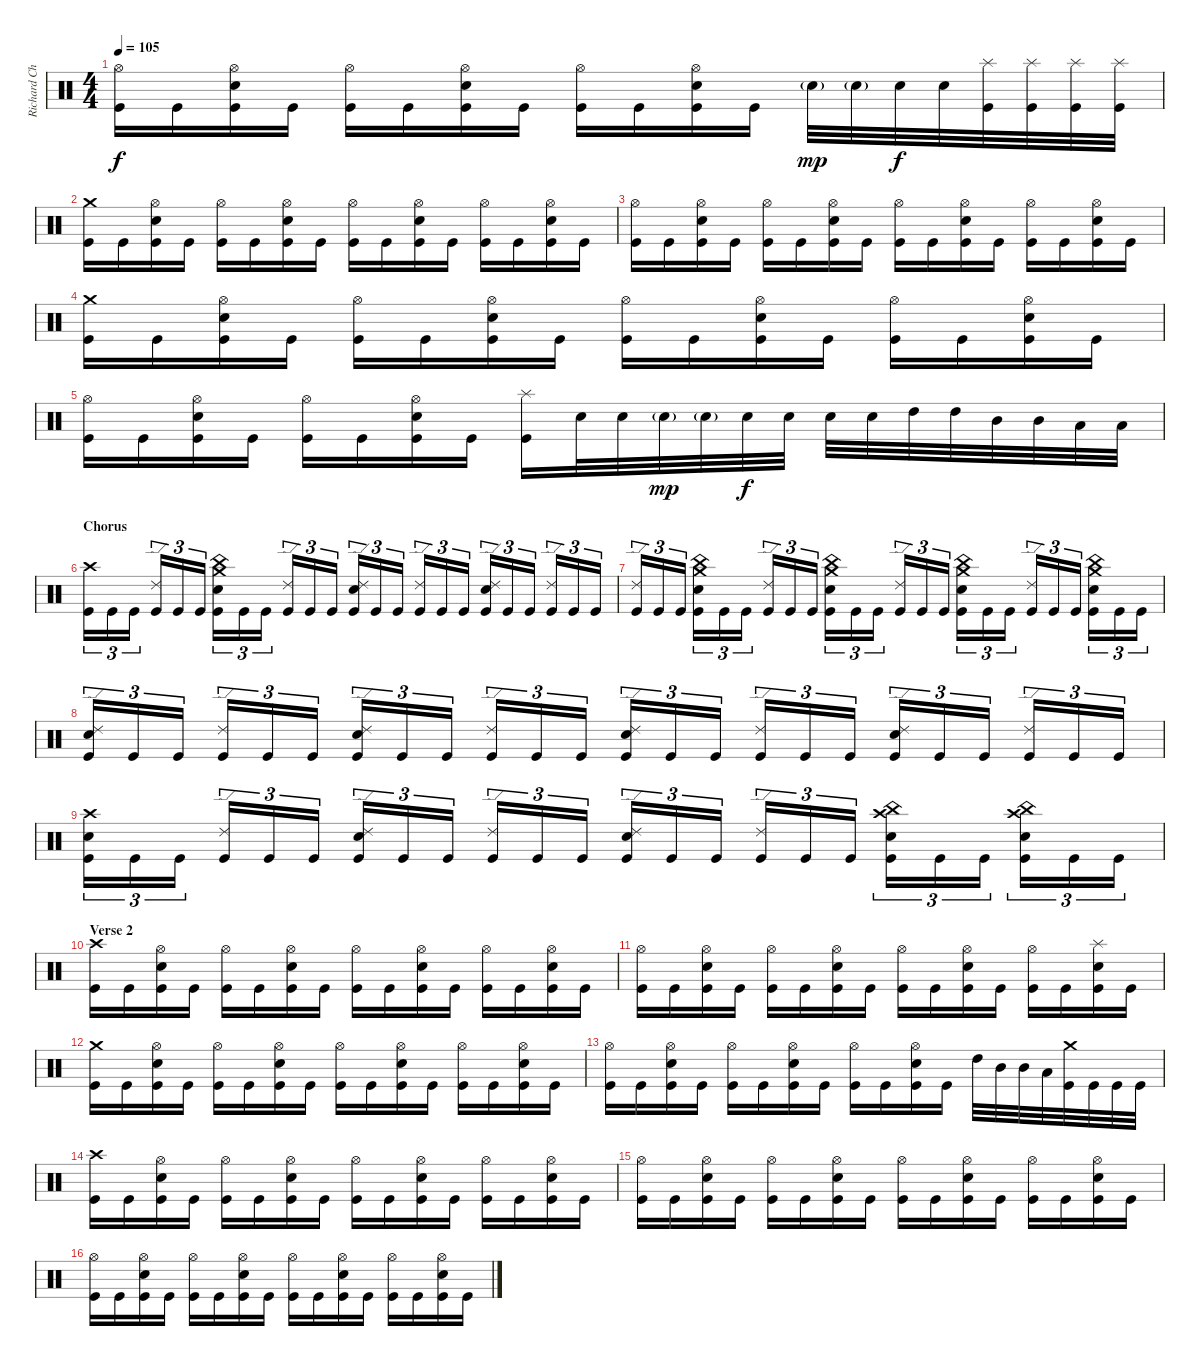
\track ("Richard Christy" "Richard Ch") {instrument percussion}
\staff {score}
\articulation defaults
\ts (4 4)
\tempo 105
\clef neutral
\ks c
("Hi-Hat (open)" "Kick (hit)").16{dy f} "Kick (hit)".16 ("Hi-Hat (open)" "Electric Snare (hit)" "Kick (hit)").16 "Kick (hit)".16 ("Hi-Hat (open)" "Kick (hit)").16 "Kick (hit)".16 ("Hi-Hat (open)" "Electric Snare (hit)" "Kick (hit)").16 "Kick (hit)".16 ("Hi-Hat (open)" "Kick (hit)").16 "Kick (hit)".16 ("Hi-Hat (open)" "Electric Snare (hit)" "Kick (hit)").16 "Kick (hit)".16 "Electric Snare (hit)"{g}.32{dy mp} "Electric Snare (hit)"{g}.32 "Electric Snare (hit)".32{dy f} "Electric Snare (hit)".32 ("Splash (hit)" "Kick (hit)").32 ("Splash (hit)" "Kick (hit)").32 ("Splash (hit)" "Kick (hit)").32 ("Splash (hit)" "Kick (hit)").32 |
("Crash medium (hit)" "Kick (hit)").16 "Kick (hit)".16 ("Hi-Hat (open)" "Electric Snare (hit)" "Kick (hit)").16 "Kick (hit)".16 ("Hi-Hat (open)" "Kick (hit)").16 "Kick (hit)".16 ("Hi-Hat (open)" "Electric Snare (hit)" "Kick (hit)").16 "Kick (hit)".16 ("Hi-Hat (open)" "Kick (hit)").16 "Kick (hit)".16 ("Hi-Hat (open)" "Electric Snare (hit)" "Kick (hit)").16 "Kick (hit)".16 ("Hi-Hat (open)" "Kick (hit)").16 "Kick (hit)".16 ("Hi-Hat (open)" "Electric Snare (hit)" "Kick (hit)").16 "Kick (hit)".16 |
("Hi-Hat (open)" "Kick (hit)").16 "Kick (hit)".16 ("Hi-Hat (open)" "Electric Snare (hit)" "Kick (hit)").16 "Kick (hit)".16 ("Hi-Hat (open)" "Kick (hit)").16 "Kick (hit)".16 ("Hi-Hat (open)" "Electric Snare (hit)" "Kick (hit)").16 "Kick (hit)".16 ("Hi-Hat (open)" "Kick (hit)").16 "Kick (hit)".16 ("Hi-Hat (open)" "Electric Snare (hit)" "Kick (hit)").16 "Kick (hit)".16 ("Hi-Hat (open)" "Kick (hit)").16 "Kick (hit)".16 ("Hi-Hat (open)" "Electric Snare (hit)" "Kick (hit)").16 "Kick (hit)".16 |
("Crash medium (hit)" "Kick (hit)").16 "Kick (hit)".16 ("Hi-Hat (open)" "Electric Snare (hit)" "Kick (hit)").16 "Kick (hit)".16 ("Hi-Hat (open)" "Kick (hit)").16 "Kick (hit)".16 ("Hi-Hat (open)" "Electric Snare (hit)" "Kick (hit)").16 "Kick (hit)".16 ("Hi-Hat (open)" "Kick (hit)").16 "Kick (hit)".16 ("Hi-Hat (open)" "Electric Snare (hit)" "Kick (hit)").16 "Kick (hit)".16 ("Hi-Hat (open)" "Kick (hit)").16 "Kick (hit)".16 ("Hi-Hat (open)" "Electric Snare (hit)" "Kick (hit)").16 "Kick (hit)".16 |
("Hi-Hat (open)" "Kick (hit)").16 "Kick (hit)".16 ("Hi-Hat (open)" "Electric Snare (hit)" "Kick (hit)").16 "Kick (hit)".16 ("Hi-Hat (open)" "Kick (hit)").16 "Kick (hit)".16 ("Hi-Hat (open)" "Electric Snare (hit)" "Kick (hit)").16 "Kick (hit)".16 ("Splash (hit)" "Kick (hit)").16 "Electric Snare (hit)".32 "Electric Snare (hit)".32 "Electric Snare (hit)"{g}.32{dy mp} "Electric Snare (hit)"{g}.32 "Electric Snare (hit)".32{dy f} "Electric Snare (hit)".32 "Electric Snare (hit)".32 "Electric Snare (hit)".32 "High Tom (hit)".32 "High Tom (hit)".32 "Mid Tom (hit)".32 "Mid Tom (hit)".32 "Low Tom (hit)".32 "Low Tom (hit)".32 |
\section ("" "Chorus")
("Crash high (hit)" "Kick (hit)").16{tu (3 2)} "Kick (hit)".16{tu (3 2)} "Kick (hit)".16{tu (3 2)} ("Ride (edge) 2" "Kick (hit)").16{tu (3 2)} "Kick (hit)".16{tu (3 2)} "Kick (hit)".16{tu (3 2)} ("Crash medium (hit)" "China (hit)" "Electric Snare (hit)" "Kick (hit)").16{tu (3 2)} "Kick (hit)".16{tu (3 2)} "Kick (hit)".16{tu (3 2)} ("Ride (edge) 2" "Kick (hit)").16{tu (3 2)} "Kick (hit)".16{tu (3 2)} "Kick (hit)".16{tu (3 2)} ("Ride (edge) 2" "Electric Snare (hit)" "Kick (hit)").16{tu (3 2)} "Kick (hit)".16{tu (3 2)} "Kick (hit)".16{tu (3 2)} ("Ride (edge) 2" "Kick (hit)").16{tu (3 2)} "Kick (hit)".16{tu (3 2)} "Kick (hit)".16{tu (3 2)} ("Ride (edge) 2" "Electric Snare (hit)" "Kick (hit)").16{tu (3 2)} "Kick (hit)".16{tu (3 2)} "Kick (hit)".16{tu (3 2)} ("Ride (edge) 2" "Kick (hit)").16{tu (3 2)} "Kick (hit)".16{tu (3 2)} "Kick (hit)".16{tu (3 2)} |
("Ride (edge) 2" "Kick (hit)").16{tu (3 2)} "Kick (hit)".16{tu (3 2)} "Kick (hit)".16{tu (3 2)} ("Crash medium (hit)" "China (hit)" "Electric Snare (hit)" "Kick (hit)").16{tu (3 2)} "Kick (hit)".16{tu (3 2)} "Kick (hit)".16{tu (3 2)} ("Ride (edge) 2" "Kick (hit)").16{tu (3 2)} "Kick (hit)".16{tu (3 2)} "Kick (hit)".16{tu (3 2)} ("Crash medium (hit)" "China (hit)" "Electric Snare (hit)" "Kick (hit)").16{tu (3 2)} "Kick (hit)".16{tu (3 2)} "Kick (hit)".16{tu (3 2)} ("Ride (edge) 2" "Kick (hit)").16{tu (3 2)} "Kick (hit)".16{tu (3 2)} "Kick (hit)".16{tu (3 2)} ("Crash medium (hit)" "China (hit)" "Electric Snare (hit)" "Kick (hit)").16{tu (3 2)} "Kick (hit)".16{tu (3 2)} "Kick (hit)".16{tu (3 2)} ("Ride (edge) 2" "Kick (hit)").16{tu (3 2)} "Kick (hit)".16{tu (3 2)} "Kick (hit)".16{tu (3 2)} ("Crash medium (hit)" "China (hit)" "Electric Snare (hit)" "Kick (hit)").16{tu (3 2)} "Kick (hit)".16{tu (3 2)} "Kick (hit)".16{tu (3 2)} |
("Ride (edge) 2" "Electric Snare (hit)" "Kick (hit)").16{tu (3 2)} "Kick (hit)".16{tu (3 2)} "Kick (hit)".16{tu (3 2)} ("Ride (edge) 2" "Kick (hit)").16{tu (3 2)} "Kick (hit)".16{tu (3 2)} "Kick (hit)".16{tu (3 2)} ("Ride (edge) 2" "Electric Snare (hit)" "Kick (hit)").16{tu (3 2)} "Kick (hit)".16{tu (3 2)} "Kick (hit)".16{tu (3 2)} ("Ride (edge) 2" "Kick (hit)").16{tu (3 2)} "Kick (hit)".16{tu (3 2)} "Kick (hit)".16{tu (3 2)} ("Ride (edge) 2" "Electric Snare (hit)" "Kick (hit)").16{tu (3 2)} "Kick (hit)".16{tu (3 2)} "Kick (hit)".16{tu (3 2)} ("Ride (edge) 2" "Kick (hit)").16{tu (3 2)} "Kick (hit)".16{tu (3 2)} "Kick (hit)".16{tu (3 2)} ("Ride (edge) 2" "Electric Snare (hit)" "Kick (hit)").16{tu (3 2)} "Kick (hit)".16{tu (3 2)} "Kick (hit)".16{tu (3 2)} ("Ride (edge) 2" "Kick (hit)").16{tu (3 2)} "Kick (hit)".16{tu (3 2)} "Kick (hit)".16{tu (3 2)} |
("Crash high (hit)" "Electric Snare (hit)" "Kick (hit)").16{tu (3 2)} "Kick (hit)".16{tu (3 2)} "Kick (hit)".16{tu (3 2)} ("Ride (edge) 2" "Kick (hit)").16{tu (3 2)} "Kick (hit)".16{tu (3 2)} "Kick (hit)".16{tu (3 2)} ("Ride (edge) 2" "Electric Snare (hit)" "Kick (hit)").16{tu (3 2)} "Kick (hit)".16{tu (3 2)} "Kick (hit)".16{tu (3 2)} ("Ride (edge) 2" "Kick (hit)").16{tu (3 2)} "Kick (hit)".16{tu (3 2)} "Kick (hit)".16{tu (3 2)} ("Ride (edge) 2" "Electric Snare (hit)" "Kick (hit)").16{tu (3 2)} "Kick (hit)".16{tu (3 2)} "Kick (hit)".16{tu (3 2)} ("Ride (edge) 2" "Kick (hit)").16{tu (3 2)} "Kick (hit)".16{tu (3 2)} "Kick (hit)".16{tu (3 2)} ("Crash high (hit)" "China (hit)" "Electric Snare (hit)" "Kick (hit)").16{tu (3 2)} "Kick (hit)".16{tu (3 2)} "Kick (hit)".16{tu (3 2)} ("Crash high (hit)" "China (hit)" "Electric Snare (hit)" "Kick (hit)").16{tu (3 2)} "Kick (hit)".16{tu (3 2)} "Kick (hit)".16{tu (3 2)} |
\section ("" "Verse 2")
("Crash high (hit)" "Kick (hit)").16 "Kick (hit)".16 ("Hi-Hat (open)" "Electric Snare (hit)" "Kick (hit)").16 "Kick (hit)".16 ("Hi-Hat (open)" "Kick (hit)").16 "Kick (hit)".16 ("Hi-Hat (open)" "Electric Snare (hit)" "Kick (hit)").16 "Kick (hit)".16 ("Hi-Hat (open)" "Kick (hit)").16 "Kick (hit)".16 ("Hi-Hat (open)" "Electric Snare (hit)" "Kick (hit)").16 "Kick (hit)".16 ("Hi-Hat (open)" "Kick (hit)").16 "Kick (hit)".16 ("Hi-Hat (open)" "Electric Snare (hit)" "Kick (hit)").16 "Kick (hit)".16 |
("Hi-Hat (open)" "Kick (hit)").16 "Kick (hit)".16 ("Hi-Hat (open)" "Electric Snare (hit)" "Kick (hit)").16 "Kick (hit)".16 ("Hi-Hat (open)" "Kick (hit)").16 "Kick (hit)".16 ("Hi-Hat (open)" "Electric Snare (hit)" "Kick (hit)").16 "Kick (hit)".16 ("Hi-Hat (open)" "Kick (hit)").16 "Kick (hit)".16 ("Hi-Hat (open)" "Electric Snare (hit)" "Kick (hit)").16 "Kick (hit)".16 ("Hi-Hat (open)" "Kick (hit)").16 "Kick (hit)".16 ("Splash (hit)" "Electric Snare (hit)" "Kick (hit)").16 "Kick (hit)".16 |
("Crash medium (hit)" "Kick (hit)").16 "Kick (hit)".16 ("Hi-Hat (open)" "Electric Snare (hit)" "Kick (hit)").16 "Kick (hit)".16 ("Hi-Hat (open)" "Kick (hit)").16 "Kick (hit)".16 ("Hi-Hat (open)" "Electric Snare (hit)" "Kick (hit)").16 "Kick (hit)".16 ("Hi-Hat (open)" "Kick (hit)").16 "Kick (hit)".16 ("Hi-Hat (open)" "Electric Snare (hit)" "Kick (hit)").16 "Kick (hit)".16 ("Hi-Hat (open)" "Kick (hit)").16 "Kick (hit)".16 ("Hi-Hat (open)" "Electric Snare (hit)" "Kick (hit)").16 "Kick (hit)".16 |
("Hi-Hat (open)" "Kick (hit)").16 "Kick (hit)".16 ("Hi-Hat (open)" "Electric Snare (hit)" "Kick (hit)").16 "Kick (hit)".16 ("Hi-Hat (open)" "Kick (hit)").16 "Kick (hit)".16 ("Hi-Hat (open)" "Electric Snare (hit)" "Kick (hit)").16 "Kick (hit)".16 ("Hi-Hat (open)" "Kick (hit)").16 "Kick (hit)".16 ("Hi-Hat (open)" "Electric Snare (hit)" "Kick (hit)").16 "Kick (hit)".16 "High Tom (hit)".32 "Mid Tom (hit)".32 "Mid Tom (hit)".32 "Low Tom (hit)".32 ("Crash medium (hit)" "Kick (hit)").32 "Kick (hit)".32 "Kick (hit)".32 "Kick (hit)".32 |
("Crash high (hit)" "Kick (hit)").16 "Kick (hit)".16 ("Hi-Hat (open)" "Electric Snare (hit)" "Kick (hit)").16 "Kick (hit)".16 ("Hi-Hat (open)" "Kick (hit)").16 "Kick (hit)".16 ("Hi-Hat (open)" "Electric Snare (hit)" "Kick (hit)").16 "Kick (hit)".16 ("Hi-Hat (open)" "Kick (hit)").16 "Kick (hit)".16 ("Hi-Hat (open)" "Electric Snare (hit)" "Kick (hit)").16 "Kick (hit)".16 ("Hi-Hat (open)" "Kick (hit)").16 "Kick (hit)".16 ("Hi-Hat (open)" "Electric Snare (hit)" "Kick (hit)").16 "Kick (hit)".16 |
("Hi-Hat (open)" "Kick (hit)").16 "Kick (hit)".16 ("Hi-Hat (open)" "Electric Snare (hit)" "Kick (hit)").16 "Kick (hit)".16 ("Hi-Hat (open)" "Kick (hit)").16 "Kick (hit)".16 ("Hi-Hat (open)" "Electric Snare (hit)" "Kick (hit)").16 "Kick (hit)".16 ("Hi-Hat (open)" "Kick (hit)").16 "Kick (hit)".16 ("Hi-Hat (open)" "Electric Snare (hit)" "Kick (hit)").16 "Kick (hit)".16 ("Hi-Hat (open)" "Kick (hit)").16 "Kick (hit)".16 ("Hi-Hat (open)" "Electric Snare (hit)" "Kick (hit)").16 "Kick (hit)".16 |
("Hi-Hat (open)" "Kick (hit)").16 "Kick (hit)".16 ("Hi-Hat (open)" "Electric Snare (hit)" "Kick (hit)").16 "Kick (hit)".16 ("Hi-Hat (open)" "Kick (hit)").16 "Kick (hit)".16 ("Hi-Hat (open)" "Electric Snare (hit)" "Kick (hit)").16 "Kick (hit)".16 ("Hi-Hat (open)" "Kick (hit)").16 "Kick (hit)".16 ("Hi-Hat (open)" "Electric Snare (hit)" "Kick (hit)").16 "Kick (hit)".16 ("Hi-Hat (open)" "Kick (hit)").16 "Kick (hit)".16 ("Hi-Hat (open)" "Electric Snare (hit)" "Kick (hit)").16 "Kick (hit)".16
